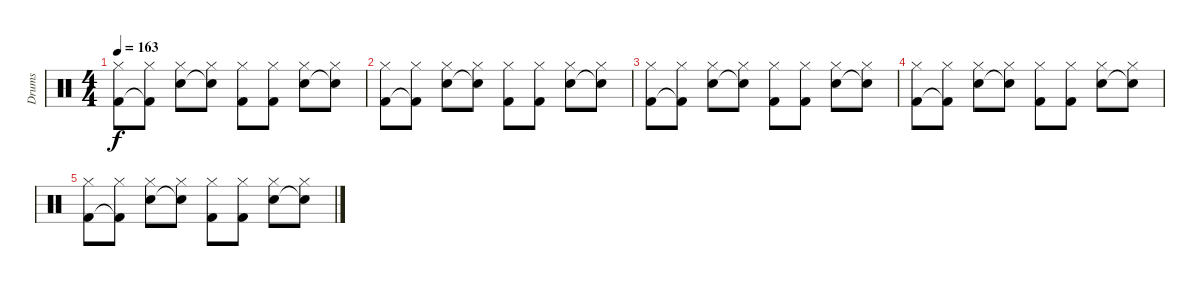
\track ("Drums" "Drums") {instrument percussion}
\staff {score}
\articulation defaults
\ts (4 4)
\tempo 163
\clef neutral
\ks c
("Kick (hit) 2" "Hi-Hat (closed)").8{dy f} ("Kick (hit) 2"{t} "Hi-Hat (closed)").8 ("Snare (hit) 2" "Hi-Hat (closed)").8 ("Snare (hit) 2"{t} "Hi-Hat (closed)").8 ("Kick (hit) 2" "Hi-Hat (closed)").8 ("Kick (hit) 2" "Hi-Hat (closed)").8 ("Snare (hit) 2" "Hi-Hat (closed)").8 ("Snare (hit) 2"{t} "Hi-Hat (closed)").8 |
("Kick (hit) 2" "Hi-Hat (closed)").8 ("Kick (hit) 2"{t} "Hi-Hat (closed)").8 ("Snare (hit) 2" "Hi-Hat (closed)").8 ("Snare (hit) 2"{t} "Hi-Hat (closed)").8 ("Kick (hit) 2" "Hi-Hat (closed)").8 ("Kick (hit) 2" "Hi-Hat (closed)").8 ("Snare (hit) 2" "Hi-Hat (closed)").8 ("Snare (hit) 2"{t} "Hi-Hat (closed)").8 |
("Kick (hit) 2" "Hi-Hat (closed)").8 ("Kick (hit) 2"{t} "Hi-Hat (closed)").8 ("Snare (hit) 2" "Hi-Hat (closed)").8 ("Snare (hit) 2"{t} "Hi-Hat (closed)").8 ("Kick (hit) 2" "Hi-Hat (closed)").8 ("Kick (hit) 2" "Hi-Hat (closed)").8 ("Snare (hit) 2" "Hi-Hat (closed)").8 ("Snare (hit) 2"{t} "Hi-Hat (closed)").8 |
("Kick (hit) 2" "Hi-Hat (closed)").8 ("Kick (hit) 2"{t} "Hi-Hat (closed)").8 ("Snare (hit) 2" "Hi-Hat (closed)").8 ("Snare (hit) 2"{t} "Hi-Hat (closed)").8 ("Kick (hit) 2" "Hi-Hat (closed)").8 ("Kick (hit) 2" "Hi-Hat (closed)").8 ("Snare (hit) 2" "Hi-Hat (closed)").8 ("Snare (hit) 2"{t} "Hi-Hat (closed)").8 |
("Kick (hit) 2" "Hi-Hat (closed)").8 ("Kick (hit) 2"{t} "Hi-Hat (closed)").8 ("Snare (hit) 2" "Hi-Hat (closed)").8 ("Snare (hit) 2"{t} "Hi-Hat (closed)").8 ("Kick (hit) 2" "Hi-Hat (closed)").8 ("Kick (hit) 2" "Hi-Hat (closed)").8 ("Snare (hit) 2" "Hi-Hat (closed)").8 ("Snare (hit) 2"{t} "Hi-Hat (closed)").8
